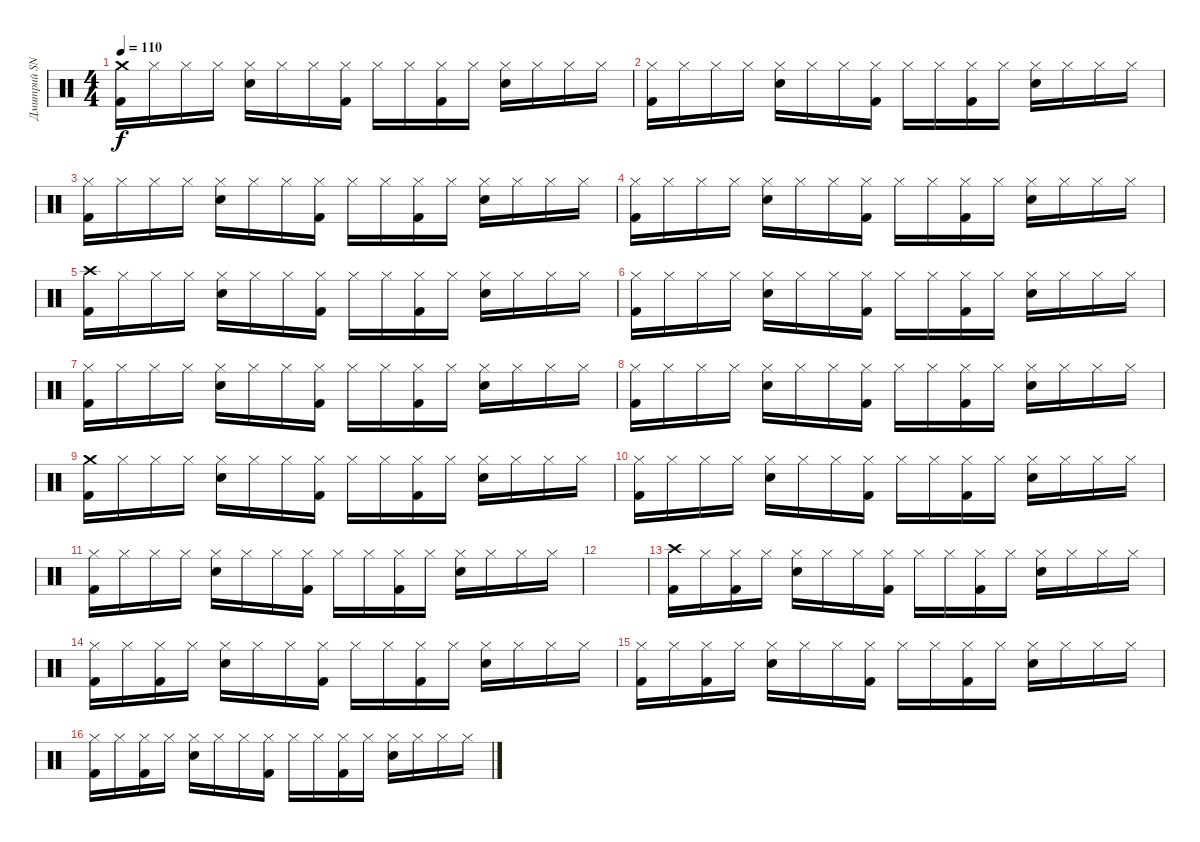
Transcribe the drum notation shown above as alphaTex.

\track ("Дмитрий SNAKE Хакимов" "Дмитрий SN") {instrument percussion}
\staff {score}
\articulation defaults
\ts (4 4)
\tempo 110
\clef neutral
\ks c
("Crash medium (hit)" "Kick (hit) 2").16{dy f} "Hi-Hat (closed)".16 "Hi-Hat (closed)".16 "Hi-Hat (closed)".16 ("Hi-Hat (closed)" "Electric Snare (hit)").16 "Hi-Hat (closed)".16 "Hi-Hat (closed)".16 ("Hi-Hat (closed)" "Kick (hit) 2").16 "Hi-Hat (closed)".16 "Hi-Hat (closed)".16 ("Hi-Hat (closed)" "Kick (hit) 2").16 "Hi-Hat (closed)".16 ("Hi-Hat (closed)" "Electric Snare (hit)").16 "Hi-Hat (closed)".16 "Hi-Hat (closed)".16 "Hi-Hat (closed)".16 |
("Hi-Hat (closed)" "Kick (hit) 2").16 "Hi-Hat (closed)".16 "Hi-Hat (closed)".16 "Hi-Hat (closed)".16 ("Hi-Hat (closed)" "Electric Snare (hit)").16 "Hi-Hat (closed)".16 "Hi-Hat (closed)".16 ("Hi-Hat (closed)" "Kick (hit) 2").16 "Hi-Hat (closed)".16 "Hi-Hat (closed)".16 ("Hi-Hat (closed)" "Kick (hit) 2").16 "Hi-Hat (closed)".16 ("Hi-Hat (closed)" "Electric Snare (hit)").16 "Hi-Hat (closed)".16 "Hi-Hat (closed)".16 "Hi-Hat (closed)".16 |
("Hi-Hat (closed)" "Kick (hit) 2").16 "Hi-Hat (closed)".16 "Hi-Hat (closed)".16 "Hi-Hat (closed)".16 ("Hi-Hat (closed)" "Electric Snare (hit)").16 "Hi-Hat (closed)".16 "Hi-Hat (closed)".16 ("Hi-Hat (closed)" "Kick (hit) 2").16 "Hi-Hat (closed)".16 "Hi-Hat (closed)".16 ("Hi-Hat (closed)" "Kick (hit) 2").16 "Hi-Hat (closed)".16 ("Hi-Hat (closed)" "Electric Snare (hit)").16 "Hi-Hat (closed)".16 "Hi-Hat (closed)".16 "Hi-Hat (closed)".16 |
("Hi-Hat (closed)" "Kick (hit) 2").16 "Hi-Hat (closed)".16 "Hi-Hat (closed)".16 "Hi-Hat (closed)".16 ("Hi-Hat (closed)" "Electric Snare (hit)").16 "Hi-Hat (closed)".16 "Hi-Hat (closed)".16 ("Hi-Hat (closed)" "Kick (hit) 2").16 "Hi-Hat (closed)".16 "Hi-Hat (closed)".16 ("Hi-Hat (closed)" "Kick (hit) 2").16 "Hi-Hat (closed)".16 ("Hi-Hat (closed)" "Electric Snare (hit)").16 "Hi-Hat (closed)".16 "Hi-Hat (closed)".16 "Hi-Hat (closed)".16 |
("Crash high (hit)" "Kick (hit) 2").16 "Hi-Hat (closed)".16 "Hi-Hat (closed)".16 "Hi-Hat (closed)".16 ("Hi-Hat (closed)" "Electric Snare (hit)").16 "Hi-Hat (closed)".16 "Hi-Hat (closed)".16 ("Hi-Hat (closed)" "Kick (hit) 2").16 "Hi-Hat (closed)".16 "Hi-Hat (closed)".16 ("Hi-Hat (closed)" "Kick (hit) 2").16 "Hi-Hat (closed)".16 ("Hi-Hat (closed)" "Electric Snare (hit)").16 "Hi-Hat (closed)".16 "Hi-Hat (closed)".16 "Hi-Hat (closed)".16 |
("Hi-Hat (closed)" "Kick (hit) 2").16 "Hi-Hat (closed)".16 "Hi-Hat (closed)".16 "Hi-Hat (closed)".16 ("Hi-Hat (closed)" "Electric Snare (hit)").16 "Hi-Hat (closed)".16 "Hi-Hat (closed)".16 ("Hi-Hat (closed)" "Kick (hit) 2").16 "Hi-Hat (closed)".16 "Hi-Hat (closed)".16 ("Hi-Hat (closed)" "Kick (hit) 2").16 "Hi-Hat (closed)".16 ("Hi-Hat (closed)" "Electric Snare (hit)").16 "Hi-Hat (closed)".16 "Hi-Hat (closed)".16 "Hi-Hat (closed)".16 |
("Hi-Hat (closed)" "Kick (hit) 2").16 "Hi-Hat (closed)".16 "Hi-Hat (closed)".16 "Hi-Hat (closed)".16 ("Hi-Hat (closed)" "Electric Snare (hit)").16 "Hi-Hat (closed)".16 "Hi-Hat (closed)".16 ("Hi-Hat (closed)" "Kick (hit) 2").16 "Hi-Hat (closed)".16 "Hi-Hat (closed)".16 ("Hi-Hat (closed)" "Kick (hit) 2").16 "Hi-Hat (closed)".16 ("Hi-Hat (closed)" "Electric Snare (hit)").16 "Hi-Hat (closed)".16 "Hi-Hat (closed)".16 "Hi-Hat (closed)".16 |
("Hi-Hat (closed)" "Kick (hit) 2").16 "Hi-Hat (closed)".16 "Hi-Hat (closed)".16 "Hi-Hat (closed)".16 ("Hi-Hat (closed)" "Electric Snare (hit)").16 "Hi-Hat (closed)".16 "Hi-Hat (closed)".16 ("Hi-Hat (closed)" "Kick (hit) 2").16 "Hi-Hat (closed)".16 "Hi-Hat (closed)".16 ("Hi-Hat (closed)" "Kick (hit) 2").16 "Hi-Hat (closed)".16 ("Hi-Hat (closed)" "Electric Snare (hit)").16 "Hi-Hat (closed)".16 "Hi-Hat (closed)".16 "Hi-Hat (closed)".16 |
("Crash medium (hit)" "Kick (hit) 2").16 "Hi-Hat (closed)".16 "Hi-Hat (closed)".16 "Hi-Hat (closed)".16 ("Hi-Hat (closed)" "Electric Snare (hit)").16 "Hi-Hat (closed)".16 "Hi-Hat (closed)".16 ("Hi-Hat (closed)" "Kick (hit) 2").16 "Hi-Hat (closed)".16 "Hi-Hat (closed)".16 ("Hi-Hat (closed)" "Kick (hit) 2").16 "Hi-Hat (closed)".16 ("Hi-Hat (closed)" "Electric Snare (hit)").16 "Hi-Hat (closed)".16 "Hi-Hat (closed)".16 "Hi-Hat (closed)".16 |
("Hi-Hat (closed)" "Kick (hit) 2").16 "Hi-Hat (closed)".16 "Hi-Hat (closed)".16 "Hi-Hat (closed)".16 ("Hi-Hat (closed)" "Electric Snare (hit)").16 "Hi-Hat (closed)".16 "Hi-Hat (closed)".16 ("Hi-Hat (closed)" "Kick (hit) 2").16 "Hi-Hat (closed)".16 "Hi-Hat (closed)".16 ("Hi-Hat (closed)" "Kick (hit) 2").16 "Hi-Hat (closed)".16 ("Hi-Hat (closed)" "Electric Snare (hit)").16 "Hi-Hat (closed)".16 "Hi-Hat (closed)".16 "Hi-Hat (closed)".16 |
("Hi-Hat (closed)" "Kick (hit) 2").16 "Hi-Hat (closed)".16 "Hi-Hat (closed)".16 "Hi-Hat (closed)".16 ("Hi-Hat (closed)" "Electric Snare (hit)").16 "Hi-Hat (closed)".16 "Hi-Hat (closed)".16 ("Hi-Hat (closed)" "Kick (hit) 2").16 "Hi-Hat (closed)".16 "Hi-Hat (closed)".16 ("Hi-Hat (closed)" "Kick (hit) 2").16 "Hi-Hat (closed)".16 ("Hi-Hat (closed)" "Electric Snare (hit)").16 "Hi-Hat (closed)".16 "Hi-Hat (closed)".16 "Hi-Hat (closed)".16 |
|
("Crash high (hit)" "Kick (hit) 2").16 "Hi-Hat (closed)".16 ("Hi-Hat (closed)" "Kick (hit) 2").16 "Hi-Hat (closed)".16 ("Hi-Hat (closed)" "Snare (hit) 2").16 "Hi-Hat (closed)".16 "Hi-Hat (closed)".16 ("Hi-Hat (closed)" "Kick (hit) 2").16 "Hi-Hat (closed)".16 "Hi-Hat (closed)".16 ("Hi-Hat (closed)" "Kick (hit) 2").16 "Hi-Hat (closed)".16 ("Hi-Hat (closed)" "Snare (hit) 2").16 "Hi-Hat (closed)".16 "Hi-Hat (closed)".16 "Hi-Hat (closed)".16 |
("Hi-Hat (closed)" "Kick (hit) 2").16 "Hi-Hat (closed)".16 ("Hi-Hat (closed)" "Kick (hit) 2").16 "Hi-Hat (closed)".16 ("Hi-Hat (closed)" "Snare (hit) 2").16 "Hi-Hat (closed)".16 "Hi-Hat (closed)".16 ("Hi-Hat (closed)" "Kick (hit) 2").16 "Hi-Hat (closed)".16 "Hi-Hat (closed)".16 ("Hi-Hat (closed)" "Kick (hit) 2").16 "Hi-Hat (closed)".16 ("Hi-Hat (closed)" "Snare (hit) 2").16 "Hi-Hat (closed)".16 "Hi-Hat (closed)".16 "Hi-Hat (closed)".16 |
("Hi-Hat (closed)" "Kick (hit) 2").16 "Hi-Hat (closed)".16 ("Hi-Hat (closed)" "Kick (hit) 2").16 "Hi-Hat (closed)".16 ("Hi-Hat (closed)" "Snare (hit) 2").16 "Hi-Hat (closed)".16 "Hi-Hat (closed)".16 ("Hi-Hat (closed)" "Kick (hit) 2").16 "Hi-Hat (closed)".16 "Hi-Hat (closed)".16 ("Hi-Hat (closed)" "Kick (hit) 2").16 "Hi-Hat (closed)".16 ("Hi-Hat (closed)" "Snare (hit) 2").16 "Hi-Hat (closed)".16 "Hi-Hat (closed)".16 "Hi-Hat (closed)".16 |
("Hi-Hat (closed)" "Kick (hit) 2").16 "Hi-Hat (closed)".16 ("Hi-Hat (closed)" "Kick (hit) 2").16 "Hi-Hat (closed)".16 ("Hi-Hat (closed)" "Snare (hit) 2").16 "Hi-Hat (closed)".16 "Hi-Hat (closed)".16 ("Hi-Hat (closed)" "Kick (hit) 2").16 "Hi-Hat (closed)".16 "Hi-Hat (closed)".16 ("Hi-Hat (closed)" "Kick (hit) 2").16 "Hi-Hat (closed)".16 ("Hi-Hat (closed)" "Snare (hit) 2").16 "Hi-Hat (closed)".16 "Hi-Hat (closed)".16 "Hi-Hat (closed)".16
